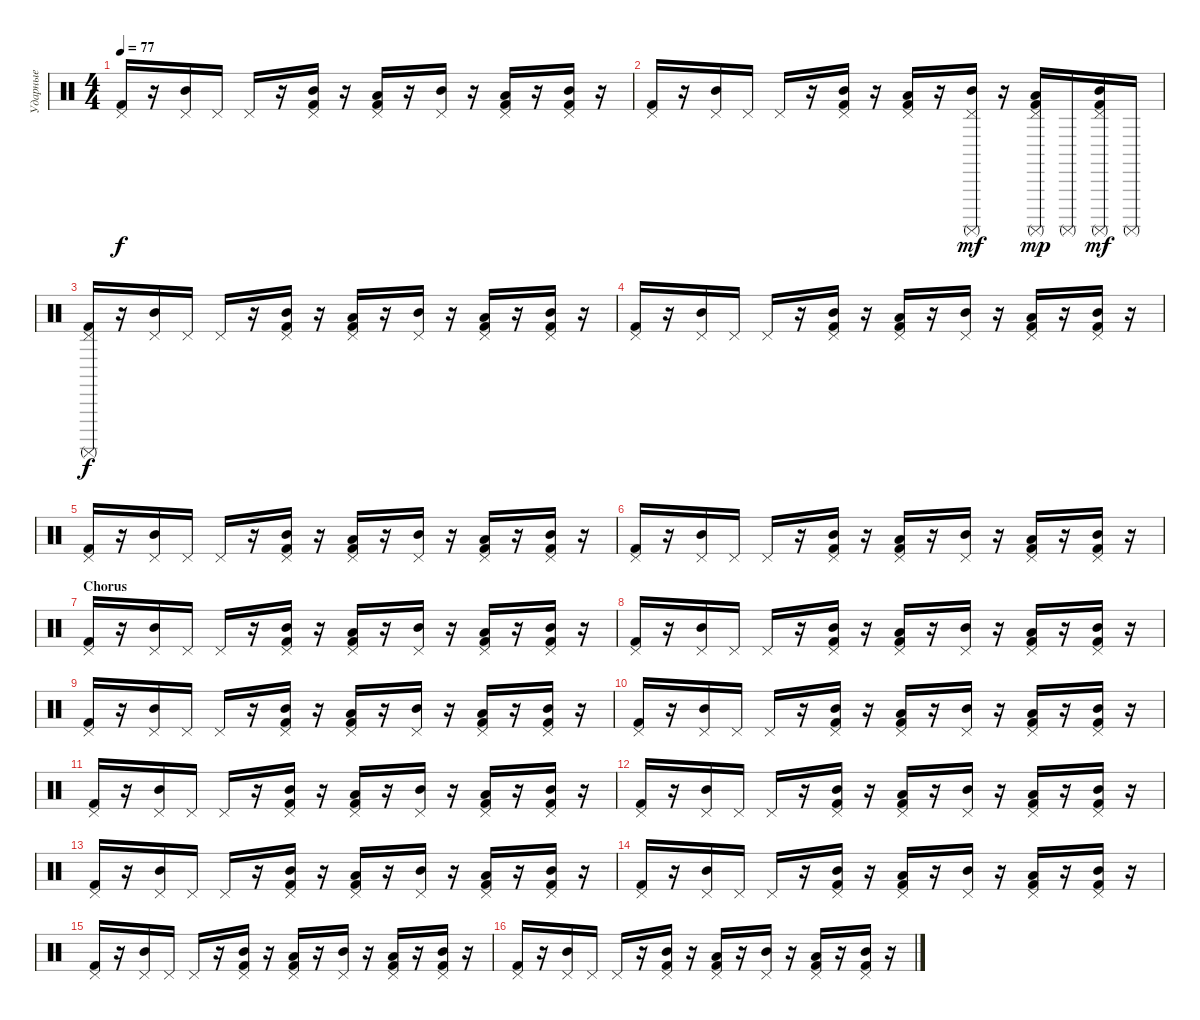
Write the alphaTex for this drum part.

\track ("Ударные" "Ударные") {instrument percussion}
\staff {score}
\articulation defaults
\ts (4 4)
\tempo 77
\clef neutral
\ks c
("Pedal Hi-Hat (hit)" "Kick (hit) 2").16{dy f} r.16 ("Pedal Hi-Hat (hit)" "Mid Tom (hit)").16 "Pedal Hi-Hat (hit)".16 "Pedal Hi-Hat (hit)".16 r.16 ("Pedal Hi-Hat (hit)" "Mid Tom (hit)" "Kick (hit) 2").16 r.16 ("Pedal Hi-Hat (hit)" "Low Tom (hit)" "Kick (hit) 2").16 r.16 ("Pedal Hi-Hat (hit)" "Mid Tom (hit)").16 r.16 ("Pedal Hi-Hat (hit)" "Low Tom (hit)" "Kick (hit) 2").16 r.16 ("Pedal Hi-Hat (hit)" "Mid Tom (hit)" "Kick (hit) 2").16 r.16 |
("Pedal Hi-Hat (hit)" "Kick (hit) 2").16 r.16 ("Pedal Hi-Hat (hit)" "Mid Tom (hit)").16 "Pedal Hi-Hat (hit)".16 "Pedal Hi-Hat (hit)".16 r.16 ("Pedal Hi-Hat (hit)" "Mid Tom (hit)" "Kick (hit) 2").16 r.16 ("Pedal Hi-Hat (hit)" "Low Tom (hit)" "Kick (hit) 2").16 r.16 ("Pedal Hi-Hat (hit)" "Surdo (mute)" "Mid Tom (hit)").16{dy mf} r.16 ("Pedal Hi-Hat (hit)" "Surdo (mute)" "Low Tom (hit)" "Kick (hit) 2").16{dy mp} "Surdo (mute)".16 ("Pedal Hi-Hat (hit)" "Surdo (mute)" "Mid Tom (hit)" "Kick (hit) 2").16{dy mf} "Surdo (mute)".16 |
("Pedal Hi-Hat (hit)" "Surdo (mute)" "Kick (hit) 2").16{dy f} r.16 ("Pedal Hi-Hat (hit)" "Mid Tom (hit)").16 "Pedal Hi-Hat (hit)".16 "Pedal Hi-Hat (hit)".16 r.16 ("Pedal Hi-Hat (hit)" "Mid Tom (hit)" "Kick (hit) 2").16 r.16 ("Pedal Hi-Hat (hit)" "Low Tom (hit)" "Kick (hit) 2").16 r.16 ("Pedal Hi-Hat (hit)" "Mid Tom (hit)").16 r.16 ("Pedal Hi-Hat (hit)" "Low Tom (hit)" "Kick (hit) 2").16 r.16 ("Pedal Hi-Hat (hit)" "Mid Tom (hit)" "Kick (hit) 2").16 r.16 |
("Pedal Hi-Hat (hit)" "Kick (hit) 2").16 r.16 ("Pedal Hi-Hat (hit)" "Mid Tom (hit)").16 "Pedal Hi-Hat (hit)".16 "Pedal Hi-Hat (hit)".16 r.16 ("Pedal Hi-Hat (hit)" "Mid Tom (hit)" "Kick (hit) 2").16 r.16 ("Pedal Hi-Hat (hit)" "Low Tom (hit)" "Kick (hit) 2").16 r.16 ("Pedal Hi-Hat (hit)" "Mid Tom (hit)").16 r.16 ("Pedal Hi-Hat (hit)" "Low Tom (hit)" "Kick (hit) 2").16 r.16 ("Pedal Hi-Hat (hit)" "Mid Tom (hit)" "Kick (hit) 2").16 r.16 |
("Pedal Hi-Hat (hit)" "Kick (hit) 2").16 r.16 ("Pedal Hi-Hat (hit)" "Mid Tom (hit)").16 "Pedal Hi-Hat (hit)".16 "Pedal Hi-Hat (hit)".16 r.16 ("Pedal Hi-Hat (hit)" "Mid Tom (hit)" "Kick (hit) 2").16 r.16 ("Pedal Hi-Hat (hit)" "Low Tom (hit)" "Kick (hit) 2").16 r.16 ("Pedal Hi-Hat (hit)" "Mid Tom (hit)").16 r.16 ("Pedal Hi-Hat (hit)" "Low Tom (hit)" "Kick (hit) 2").16 r.16 ("Pedal Hi-Hat (hit)" "Mid Tom (hit)" "Kick (hit) 2").16 r.16 |
("Pedal Hi-Hat (hit)" "Kick (hit) 2").16 r.16 ("Pedal Hi-Hat (hit)" "Mid Tom (hit)").16 "Pedal Hi-Hat (hit)".16 "Pedal Hi-Hat (hit)".16 r.16 ("Pedal Hi-Hat (hit)" "Mid Tom (hit)" "Kick (hit) 2").16 r.16 ("Pedal Hi-Hat (hit)" "Low Tom (hit)" "Kick (hit) 2").16 r.16 ("Pedal Hi-Hat (hit)" "Mid Tom (hit)").16 r.16 ("Pedal Hi-Hat (hit)" "Low Tom (hit)" "Kick (hit) 2").16 r.16 ("Pedal Hi-Hat (hit)" "Mid Tom (hit)" "Kick (hit) 2").16 r.16 |
\section ("" "Chorus")
("Pedal Hi-Hat (hit)" "Kick (hit) 2").16 r.16 ("Pedal Hi-Hat (hit)" "Mid Tom (hit)").16 "Pedal Hi-Hat (hit)".16 "Pedal Hi-Hat (hit)".16 r.16 ("Pedal Hi-Hat (hit)" "Mid Tom (hit)" "Kick (hit) 2").16 r.16 ("Pedal Hi-Hat (hit)" "Low Tom (hit)" "Kick (hit) 2").16 r.16 ("Pedal Hi-Hat (hit)" "Mid Tom (hit)").16 r.16 ("Pedal Hi-Hat (hit)" "Low Tom (hit)" "Kick (hit) 2").16 r.16 ("Pedal Hi-Hat (hit)" "Mid Tom (hit)" "Kick (hit) 2").16 r.16 |
("Pedal Hi-Hat (hit)" "Kick (hit) 2").16 r.16 ("Pedal Hi-Hat (hit)" "Mid Tom (hit)").16 "Pedal Hi-Hat (hit)".16 "Pedal Hi-Hat (hit)".16 r.16 ("Pedal Hi-Hat (hit)" "Mid Tom (hit)" "Kick (hit) 2").16 r.16 ("Pedal Hi-Hat (hit)" "Low Tom (hit)" "Kick (hit) 2").16 r.16 ("Pedal Hi-Hat (hit)" "Mid Tom (hit)").16 r.16 ("Pedal Hi-Hat (hit)" "Low Tom (hit)" "Kick (hit) 2").16 r.16 ("Pedal Hi-Hat (hit)" "Mid Tom (hit)" "Kick (hit) 2").16 r.16 |
("Pedal Hi-Hat (hit)" "Kick (hit) 2").16 r.16 ("Pedal Hi-Hat (hit)" "Mid Tom (hit)").16 "Pedal Hi-Hat (hit)".16 "Pedal Hi-Hat (hit)".16 r.16 ("Pedal Hi-Hat (hit)" "Mid Tom (hit)" "Kick (hit) 2").16 r.16 ("Pedal Hi-Hat (hit)" "Low Tom (hit)" "Kick (hit) 2").16 r.16 ("Pedal Hi-Hat (hit)" "Mid Tom (hit)").16 r.16 ("Pedal Hi-Hat (hit)" "Low Tom (hit)" "Kick (hit) 2").16 r.16 ("Pedal Hi-Hat (hit)" "Mid Tom (hit)" "Kick (hit) 2").16 r.16 |
("Pedal Hi-Hat (hit)" "Kick (hit) 2").16 r.16 ("Pedal Hi-Hat (hit)" "Mid Tom (hit)").16 "Pedal Hi-Hat (hit)".16 "Pedal Hi-Hat (hit)".16 r.16 ("Pedal Hi-Hat (hit)" "Mid Tom (hit)" "Kick (hit) 2").16 r.16 ("Pedal Hi-Hat (hit)" "Low Tom (hit)" "Kick (hit) 2").16 r.16 ("Pedal Hi-Hat (hit)" "Mid Tom (hit)").16 r.16 ("Pedal Hi-Hat (hit)" "Low Tom (hit)" "Kick (hit) 2").16 r.16 ("Pedal Hi-Hat (hit)" "Mid Tom (hit)" "Kick (hit) 2").16 r.16 |
("Pedal Hi-Hat (hit)" "Kick (hit) 2").16 r.16 ("Pedal Hi-Hat (hit)" "Mid Tom (hit)").16 "Pedal Hi-Hat (hit)".16 "Pedal Hi-Hat (hit)".16 r.16 ("Pedal Hi-Hat (hit)" "Mid Tom (hit)" "Kick (hit) 2").16 r.16 ("Pedal Hi-Hat (hit)" "Low Tom (hit)" "Kick (hit) 2").16 r.16 ("Pedal Hi-Hat (hit)" "Mid Tom (hit)").16 r.16 ("Pedal Hi-Hat (hit)" "Low Tom (hit)" "Kick (hit) 2").16 r.16 ("Pedal Hi-Hat (hit)" "Mid Tom (hit)" "Kick (hit) 2").16 r.16 |
("Pedal Hi-Hat (hit)" "Kick (hit) 2").16 r.16 ("Pedal Hi-Hat (hit)" "Mid Tom (hit)").16 "Pedal Hi-Hat (hit)".16 "Pedal Hi-Hat (hit)".16 r.16 ("Pedal Hi-Hat (hit)" "Mid Tom (hit)" "Kick (hit) 2").16 r.16 ("Pedal Hi-Hat (hit)" "Low Tom (hit)" "Kick (hit) 2").16 r.16 ("Pedal Hi-Hat (hit)" "Mid Tom (hit)").16 r.16 ("Pedal Hi-Hat (hit)" "Low Tom (hit)" "Kick (hit) 2").16 r.16 ("Pedal Hi-Hat (hit)" "Mid Tom (hit)" "Kick (hit) 2").16 r.16 |
("Pedal Hi-Hat (hit)" "Kick (hit) 2").16 r.16 ("Pedal Hi-Hat (hit)" "Mid Tom (hit)").16 "Pedal Hi-Hat (hit)".16 "Pedal Hi-Hat (hit)".16 r.16 ("Pedal Hi-Hat (hit)" "Mid Tom (hit)" "Kick (hit) 2").16 r.16 ("Pedal Hi-Hat (hit)" "Low Tom (hit)" "Kick (hit) 2").16 r.16 ("Pedal Hi-Hat (hit)" "Mid Tom (hit)").16 r.16 ("Pedal Hi-Hat (hit)" "Low Tom (hit)" "Kick (hit) 2").16 r.16 ("Pedal Hi-Hat (hit)" "Mid Tom (hit)" "Kick (hit) 2").16 r.16 |
("Pedal Hi-Hat (hit)" "Kick (hit) 2").16 r.16 ("Pedal Hi-Hat (hit)" "Mid Tom (hit)").16 "Pedal Hi-Hat (hit)".16 "Pedal Hi-Hat (hit)".16 r.16 ("Pedal Hi-Hat (hit)" "Mid Tom (hit)" "Kick (hit) 2").16 r.16 ("Pedal Hi-Hat (hit)" "Low Tom (hit)" "Kick (hit) 2").16 r.16 ("Pedal Hi-Hat (hit)" "Mid Tom (hit)").16 r.16 ("Pedal Hi-Hat (hit)" "Low Tom (hit)" "Kick (hit) 2").16 r.16 ("Pedal Hi-Hat (hit)" "Mid Tom (hit)" "Kick (hit) 2").16 r.16 |
("Pedal Hi-Hat (hit)" "Kick (hit) 2").16 r.16 ("Pedal Hi-Hat (hit)" "Mid Tom (hit)").16 "Pedal Hi-Hat (hit)".16 "Pedal Hi-Hat (hit)".16 r.16 ("Pedal Hi-Hat (hit)" "Mid Tom (hit)" "Kick (hit) 2").16 r.16 ("Pedal Hi-Hat (hit)" "Low Tom (hit)" "Kick (hit) 2").16 r.16 ("Pedal Hi-Hat (hit)" "Mid Tom (hit)").16 r.16 ("Pedal Hi-Hat (hit)" "Low Tom (hit)" "Kick (hit) 2").16 r.16 ("Pedal Hi-Hat (hit)" "Mid Tom (hit)" "Kick (hit) 2").16 r.16 |
("Pedal Hi-Hat (hit)" "Kick (hit) 2").16 r.16 ("Pedal Hi-Hat (hit)" "Mid Tom (hit)").16 "Pedal Hi-Hat (hit)".16 "Pedal Hi-Hat (hit)".16 r.16 ("Pedal Hi-Hat (hit)" "Mid Tom (hit)" "Kick (hit) 2").16 r.16 ("Pedal Hi-Hat (hit)" "Low Tom (hit)" "Kick (hit) 2").16 r.16 ("Pedal Hi-Hat (hit)" "Mid Tom (hit)").16 r.16 ("Pedal Hi-Hat (hit)" "Low Tom (hit)" "Kick (hit) 2").16 r.16 ("Pedal Hi-Hat (hit)" "Mid Tom (hit)" "Kick (hit) 2").16 r.16
